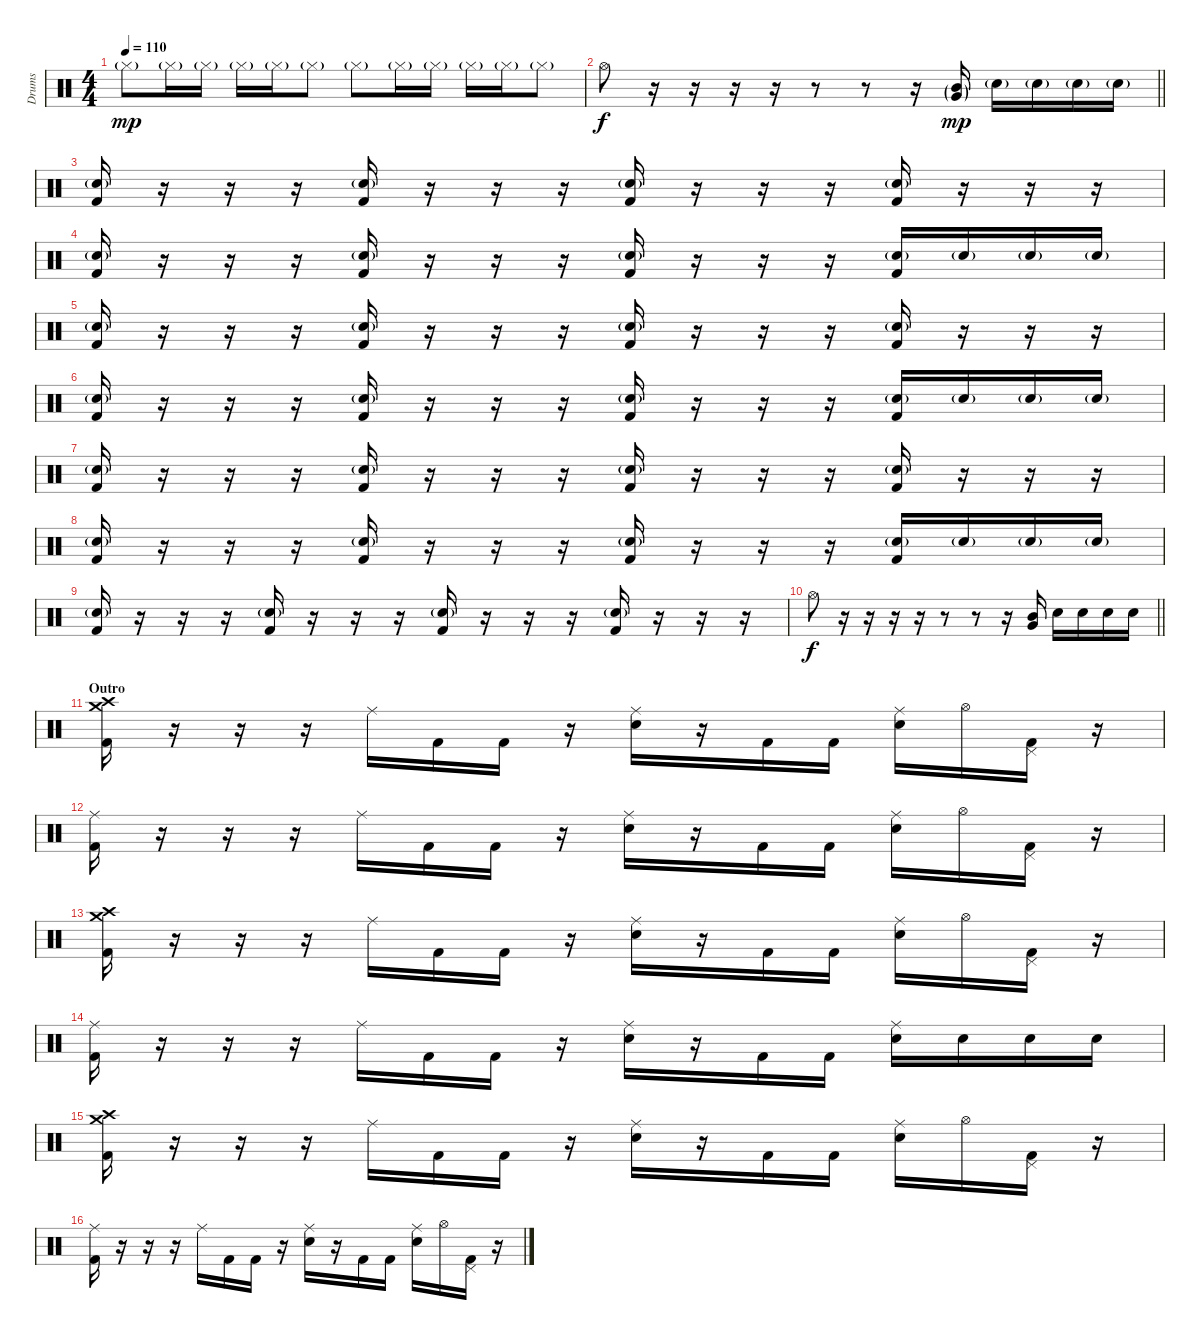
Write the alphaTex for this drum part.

\track ("Drums" "Drums") {instrument percussion}
\staff {score}
\articulation defaults
\ts (4 4)
\tempo 110
\clef neutral
\ks c "Hi-Hat (closed)"{g}.8{dy mp} "Hi-Hat (closed)"{g}.16 "Hi-Hat (closed)"{g}.16 "Hi-Hat (closed)"{g}.16 "Hi-Hat (closed)"{g}.16 "Hi-Hat (closed)"{g}.8 "Hi-Hat (closed)"{g}.8 "Hi-Hat (closed)"{g}.16 "Hi-Hat (closed)"{g}.16 "Hi-Hat (closed)"{g}.16 "Hi-Hat (closed)"{g}.16 "Hi-Hat (closed)"{g}.8
|
\barLineRight lightlight "Hi-Hat (open)".8{dy f}
r.16 r.16 r.16 r.16 r.8 r.8 r.16 ("Very Low Tom (hit)"{g} "Mid Tom (hit)"{g}).16{dy mp} "Electric Snare (hit)"{g}.16 "Electric Snare (hit)"{g}.16 "Electric Snare (hit)"{g}.16 "Electric Snare (hit)"{g}.16 |
("Electric Snare (hit)"{g} "Kick (hit) 2").16 r.16 r.16 r.16 ("Electric Snare (hit)"{g} "Kick (hit) 2").16 r.16 r.16 r.16 ("Electric Snare (hit)"{g} "Kick (hit) 2").16 r.16 r.16 r.16 ("Electric Snare (hit)"{g} "Kick (hit) 2").16 r.16 r.16 r.16 |
("Electric Snare (hit)"{g} "Kick (hit) 2").16 r.16 r.16 r.16 ("Electric Snare (hit)"{g} "Kick (hit) 2").16 r.16 r.16 r.16 ("Electric Snare (hit)"{g} "Kick (hit) 2").16 r.16 r.16 r.16 ("Electric Snare (hit)"{g} "Kick (hit) 2").16 "Electric Snare (hit)"{g}.16 "Electric Snare (hit)"{g}.16 "Electric Snare (hit)"{g}.16 |
("Electric Snare (hit)"{g} "Kick (hit) 2").16 r.16 r.16 r.16 ("Electric Snare (hit)"{g} "Kick (hit) 2").16 r.16 r.16 r.16 ("Electric Snare (hit)"{g} "Kick (hit) 2").16 r.16 r.16 r.16 ("Electric Snare (hit)"{g} "Kick (hit) 2").16 r.16 r.16 r.16 |
("Electric Snare (hit)"{g} "Kick (hit) 2").16 r.16 r.16 r.16 ("Electric Snare (hit)"{g} "Kick (hit) 2").16 r.16 r.16 r.16 ("Electric Snare (hit)"{g} "Kick (hit) 2").16 r.16 r.16 r.16 ("Electric Snare (hit)"{g} "Kick (hit) 2").16 "Electric Snare (hit)"{g}.16 "Electric Snare (hit)"{g}.16 "Electric Snare (hit)"{g}.16 |
("Electric Snare (hit)"{g} "Kick (hit) 2").16 r.16 r.16 r.16 ("Electric Snare (hit)"{g} "Kick (hit) 2").16 r.16 r.16 r.16 ("Electric Snare (hit)"{g} "Kick (hit) 2").16 r.16 r.16 r.16 ("Electric Snare (hit)"{g} "Kick (hit) 2").16 r.16 r.16 r.16 |
("Electric Snare (hit)"{g} "Kick (hit) 2").16 r.16 r.16 r.16 ("Electric Snare (hit)"{g} "Kick (hit) 2").16 r.16 r.16 r.16 ("Electric Snare (hit)"{g} "Kick (hit) 2").16 r.16 r.16 r.16 ("Electric Snare (hit)"{g} "Kick (hit) 2").16 "Electric Snare (hit)"{g}.16 "Electric Snare (hit)"{g}.16 "Electric Snare (hit)"{g}.16 |
("Electric Snare (hit)"{g} "Kick (hit) 2").16 r.16 r.16 r.16 ("Electric Snare (hit)"{g} "Kick (hit) 2").16 r.16 r.16 r.16 ("Electric Snare (hit)"{g} "Kick (hit) 2").16 r.16 r.16 r.16 ("Electric Snare (hit)"{g} "Kick (hit) 2").16 r.16 r.16 r.16 |
\barLineRight lightlight "Hi-Hat (open)".8{dy f}
r.16 r.16 r.16 r.16 r.8 r.8 r.16 ("Very Low Tom (hit)" "Mid Tom (hit)").16 "Electric Snare (hit)".16 "Electric Snare (hit)".16 "Electric Snare (hit)".16 "Electric Snare (hit)".16 |
\section ("" "Outro")
("Crash medium (hit)" "Crash high (hit)" "Kick (hit) 2").16 r.16 r.16 r.16 "Ride (middle)".16 "Kick (hit) 2".16 "Kick (hit) 2".16 r.16 ("Ride (middle)" "Snare (hit) 2").16 r.16 "Kick (hit) 2".16 "Kick (hit) 2".16 ("Ride (middle)" "Snare (hit) 2").16 "Hi-Hat (open)".16 ("Pedal Hi-Hat (hit)" "Kick (hit) 2").16 r.16 |
("Ride (middle)" "Kick (hit) 2").16 r.16 r.16 r.16 "Ride (middle)".16 "Kick (hit) 2".16 "Kick (hit) 2".16 r.16 ("Ride (middle)" "Snare (hit) 2").16 r.16 "Kick (hit) 2".16 "Kick (hit) 2".16 ("Ride (middle)" "Snare (hit) 2").16 "Hi-Hat (open)".16 ("Pedal Hi-Hat (hit)" "Kick (hit) 2").16 r.16 |
("Crash medium (hit)" "Crash high (hit)" "Kick (hit) 2").16 r.16 r.16 r.16 "Ride (middle)".16 "Kick (hit) 2".16 "Kick (hit) 2".16 r.16 ("Ride (middle)" "Snare (hit) 2").16 r.16 "Kick (hit) 2".16 "Kick (hit) 2".16 ("Ride (middle)" "Snare (hit) 2").16 "Hi-Hat (open)".16 ("Pedal Hi-Hat (hit)" "Kick (hit) 2").16 r.16 |
("Ride (middle)" "Kick (hit) 2").16 r.16 r.16 r.16 "Ride (middle)".16 "Kick (hit) 2".16 "Kick (hit) 2".16 r.16 ("Ride (middle)" "Snare (hit) 2").16 r.16 "Kick (hit) 2".16 "Kick (hit) 2".16 ("Ride (middle)" "Snare (hit) 2").16 "Snare (hit) 2".16 "Snare (hit) 2".16 "Snare (hit) 2".16 |
("Crash medium (hit)" "Crash high (hit)" "Kick (hit) 2").16 r.16 r.16 r.16 "Ride (middle)".16 "Kick (hit) 2".16 "Kick (hit) 2".16 r.16 ("Ride (middle)" "Snare (hit) 2").16 r.16 "Kick (hit) 2".16 "Kick (hit) 2".16 ("Ride (middle)" "Snare (hit) 2").16 "Hi-Hat (open)".16 ("Pedal Hi-Hat (hit)" "Kick (hit) 2").16 r.16 |
("Ride (middle)" "Kick (hit) 2").16 r.16 r.16 r.16 "Ride (middle)".16 "Kick (hit) 2".16 "Kick (hit) 2".16 r.16 ("Ride (middle)" "Snare (hit) 2").16 r.16 "Kick (hit) 2".16 "Kick (hit) 2".16 ("Ride (middle)" "Snare (hit) 2").16 "Hi-Hat (open)".16 ("Pedal Hi-Hat (hit)" "Kick (hit) 2").16 r.16
